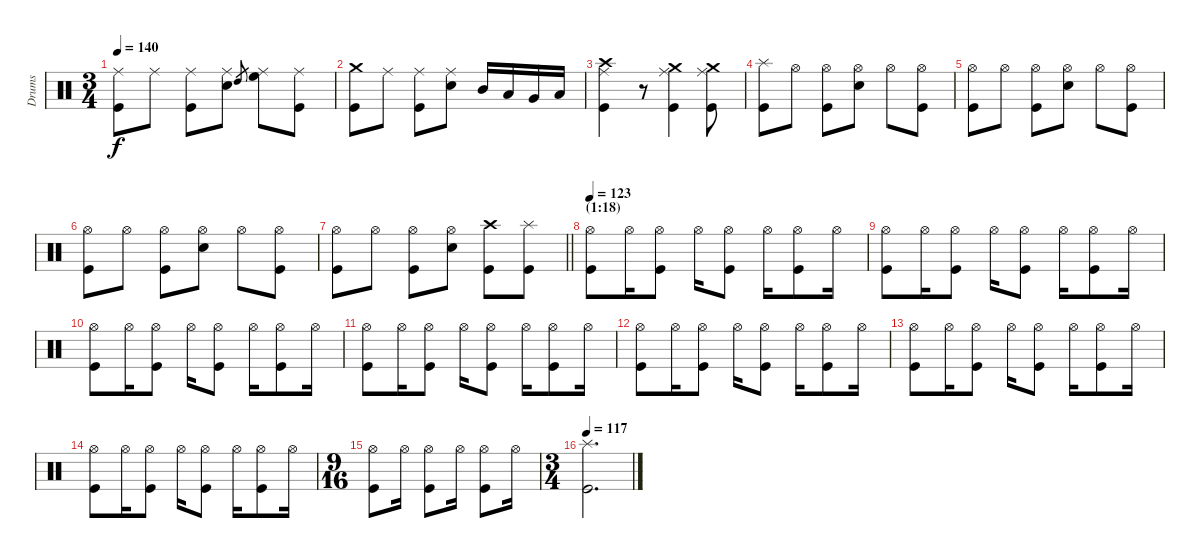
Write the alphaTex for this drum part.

\track ("Drums" "Drums") {instrument percussion}
\staff {score}
\articulation defaults
\ts (3 4)
\tempo 140
\clef neutral
\ks c
("Ride (middle)" "Kick (hit)").8{dy f} "Ride (middle)".8 ("Ride (middle)" "Kick (hit)").8 ("Ride (middle)" "Snare (hit) 2").8 "High Tom (hit)".8{gr} ("Ride (middle)" "High Floor Tom (hit)").8 ("Ride (middle)" "Kick (hit)").8 |
("Crash medium (hit)" "Kick (hit)").8 "Ride (middle)".8 ("Ride (middle)" "Kick (hit)").8 ("Ride (middle)" "Snare (hit) 2").8 "Mid Tom (hit)".16 "Low Tom (hit)".16 "Very Low Tom (hit)".16 "Low Floor Tom (hit)".16 |
("Crash high (hit)" "Ride (middle)" "Kick (hit)").4 r.8 ("Crash medium (hit)" "Ride (middle)" "Kick (hit)").4 ("Crash medium (hit)" "Ride (middle)" "Kick (hit)").8 |
("Splash (hit)" "Kick (hit)").8 "Hi-Hat (open)".8 ("Hi-Hat (open)" "Kick (hit)").8 ("Hi-Hat (open)" "Snare (hit) 2").8 "Hi-Hat (open)".8 ("Hi-Hat (open)" "Kick (hit)").8 |
("Hi-Hat (open)" "Kick (hit)").8 "Hi-Hat (open)".8 ("Hi-Hat (open)" "Kick (hit)").8 ("Hi-Hat (open)" "Snare (hit) 2").8 "Hi-Hat (open)".8 ("Hi-Hat (open)" "Kick (hit)").8 |
("Hi-Hat (open)" "Kick (hit)").8 "Hi-Hat (open)".8 ("Hi-Hat (open)" "Kick (hit)").8 ("Hi-Hat (open)" "Snare (hit) 2").8 "Hi-Hat (open)".8 ("Hi-Hat (open)" "Kick (hit)").8 |
\barLineRight lightlight
("Hi-Hat (open)" "Kick (hit)").8 "Hi-Hat (open)".8 ("Hi-Hat (open)" "Kick (hit)").8 ("Hi-Hat (open)" "Snare (hit) 2").8 ("Crash high (hit)" "Kick (hit)").8 ("Splash (hit)" "Kick (hit)").8 |
\section ("" "(1:18)")
\tempo 123
("Hi-Hat (open)" "Kick (hit)").8 "Hi-Hat (open)".16 ("Hi-Hat (open)" "Kick (hit)").8 "Hi-Hat (open)".16 ("Hi-Hat (open)" "Kick (hit)").8 "Hi-Hat (open)".16 ("Hi-Hat (open)" "Kick (hit)").8 "Hi-Hat (open)".16 |
("Hi-Hat (open)" "Kick (hit)").8 "Hi-Hat (open)".16 ("Hi-Hat (open)" "Kick (hit)").8 "Hi-Hat (open)".16 ("Hi-Hat (open)" "Kick (hit)").8 "Hi-Hat (open)".16 ("Hi-Hat (open)" "Kick (hit)").8 "Hi-Hat (open)".16 |
("Hi-Hat (open)" "Kick (hit)").8 "Hi-Hat (open)".16 ("Hi-Hat (open)" "Kick (hit)").8 "Hi-Hat (open)".16 ("Hi-Hat (open)" "Kick (hit)").8 "Hi-Hat (open)".16 ("Hi-Hat (open)" "Kick (hit)").8 "Hi-Hat (open)".16 |
("Hi-Hat (open)" "Kick (hit)").8 "Hi-Hat (open)".16 ("Hi-Hat (open)" "Kick (hit)").8 "Hi-Hat (open)".16 ("Hi-Hat (open)" "Kick (hit)").8 "Hi-Hat (open)".16 ("Hi-Hat (open)" "Kick (hit)").8 "Hi-Hat (open)".16 |
("Hi-Hat (open)" "Kick (hit)").8 "Hi-Hat (open)".16 ("Hi-Hat (open)" "Kick (hit)").8 "Hi-Hat (open)".16 ("Hi-Hat (open)" "Kick (hit)").8 "Hi-Hat (open)".16 ("Hi-Hat (open)" "Kick (hit)").8 "Hi-Hat (open)".16 |
("Hi-Hat (open)" "Kick (hit)").8 "Hi-Hat (open)".16 ("Hi-Hat (open)" "Kick (hit)").8 "Hi-Hat (open)".16 ("Hi-Hat (open)" "Kick (hit)").8 "Hi-Hat (open)".16 ("Hi-Hat (open)" "Kick (hit)").8 "Hi-Hat (open)".16 |
("Hi-Hat (open)" "Kick (hit)").8 "Hi-Hat (open)".16 ("Hi-Hat (open)" "Kick (hit)").8 "Hi-Hat (open)".16 ("Hi-Hat (open)" "Kick (hit)").8 "Hi-Hat (open)".16 ("Hi-Hat (open)" "Kick (hit)").8 "Hi-Hat (open)".16 |
\ts (9 16)
("Hi-Hat (open)" "Kick (hit)").8 "Hi-Hat (open)".16 ("Hi-Hat (open)" "Kick (hit)").8 "Hi-Hat (open)".16 ("Hi-Hat (open)" "Kick (hit)").8 "Hi-Hat (open)".16 |
\ts (3 4)
\tempo 117
("Splash (hit)" "Kick (hit)").2{d}
